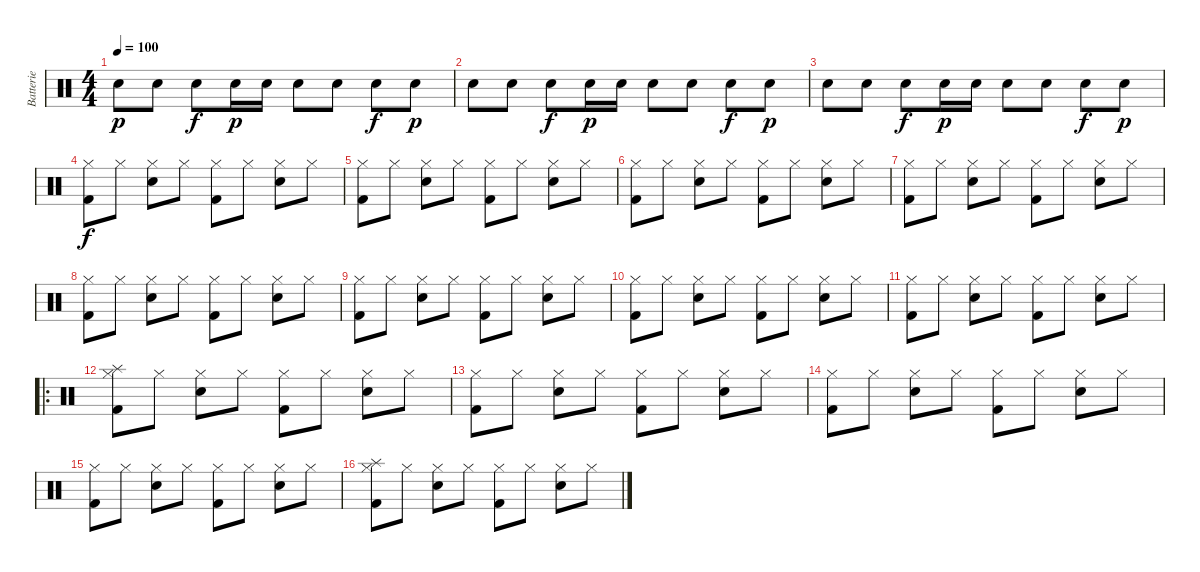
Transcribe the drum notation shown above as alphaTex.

\track ("Batterie" "Batterie") {instrument percussion}
\staff {score}
\articulation defaults
\ts (4 4)
\tempo 100
\clef neutral
\ks c "Snare (hit) 2".8{dy p} "Snare (hit) 2".8 "Snare (hit) 2".8{dy f} "Snare (hit) 2".16{dy p} "Snare (hit) 2".16 "Snare (hit) 2".8 "Snare (hit) 2".8 "Snare (hit) 2".8{dy f} "Snare (hit) 2".8{dy p}
|
"Snare (hit) 2".8 "Snare (hit) 2".8 "Snare (hit) 2".8{dy f} "Snare (hit) 2".16{dy p} "Snare (hit) 2".16 "Snare (hit) 2".8 "Snare (hit) 2".8 "Snare (hit) 2".8{dy f} "Snare (hit) 2".8{dy p} |
"Snare (hit) 2".8 "Snare (hit) 2".8 "Snare (hit) 2".8{dy f} "Snare (hit) 2".16{dy p} "Snare (hit) 2".16 "Snare (hit) 2".8 "Snare (hit) 2".8 "Snare (hit) 2".8{dy f} "Snare (hit) 2".8{dy p} |
("Hi-Hat (closed)" "Kick (hit) 2").8{dy f} "Hi-Hat (closed)".8 ("Hi-Hat (closed)" "Snare (hit) 2").8 "Hi-Hat (closed)".8 ("Hi-Hat (closed)" "Kick (hit) 2").8 "Hi-Hat (closed)".8 ("Hi-Hat (closed)" "Snare (hit) 2").8 "Hi-Hat (closed)".8 |
("Hi-Hat (closed)" "Kick (hit) 2").8 "Hi-Hat (closed)".8 ("Hi-Hat (closed)" "Snare (hit) 2").8 "Hi-Hat (closed)".8 ("Hi-Hat (closed)" "Kick (hit) 2").8 "Hi-Hat (closed)".8 ("Hi-Hat (closed)" "Snare (hit) 2").8 "Hi-Hat (closed)".8 |
("Hi-Hat (closed)" "Kick (hit) 2").8 "Hi-Hat (closed)".8 ("Hi-Hat (closed)" "Snare (hit) 2").8 "Hi-Hat (closed)".8 ("Hi-Hat (closed)" "Kick (hit) 2").8 "Hi-Hat (closed)".8 ("Hi-Hat (closed)" "Snare (hit) 2").8 "Hi-Hat (closed)".8 |
("Hi-Hat (closed)" "Kick (hit) 2").8 "Hi-Hat (closed)".8 ("Hi-Hat (closed)" "Snare (hit) 2").8 "Hi-Hat (closed)".8 ("Hi-Hat (closed)" "Kick (hit) 2").8 "Hi-Hat (closed)".8 ("Hi-Hat (closed)" "Snare (hit) 2").8 "Hi-Hat (closed)".8 |
("Hi-Hat (closed)" "Kick (hit) 2").8 "Hi-Hat (closed)".8 ("Hi-Hat (closed)" "Snare (hit) 2").8 "Hi-Hat (closed)".8 ("Hi-Hat (closed)" "Kick (hit) 2").8 "Hi-Hat (closed)".8 ("Hi-Hat (closed)" "Snare (hit) 2").8 "Hi-Hat (closed)".8 |
("Hi-Hat (closed)" "Kick (hit) 2").8 "Hi-Hat (closed)".8 ("Hi-Hat (closed)" "Snare (hit) 2").8 "Hi-Hat (closed)".8 ("Hi-Hat (closed)" "Kick (hit) 2").8 "Hi-Hat (closed)".8 ("Hi-Hat (closed)" "Snare (hit) 2").8 "Hi-Hat (closed)".8 |
("Hi-Hat (closed)" "Kick (hit) 2").8 "Hi-Hat (closed)".8 ("Hi-Hat (closed)" "Snare (hit) 2").8 "Hi-Hat (closed)".8 ("Hi-Hat (closed)" "Kick (hit) 2").8 "Hi-Hat (closed)".8 ("Hi-Hat (closed)" "Snare (hit) 2").8 "Hi-Hat (closed)".8 |
("Hi-Hat (closed)" "Kick (hit) 2").8 "Hi-Hat (closed)".8 ("Hi-Hat (closed)" "Snare (hit) 2").8 "Hi-Hat (closed)".8 ("Hi-Hat (closed)" "Kick (hit) 2").8 "Hi-Hat (closed)".8 ("Hi-Hat (closed)" "Snare (hit) 2").8 "Hi-Hat (closed)".8 |
\ro
("Splash (hit)" "Hi-Hat (closed)" "Kick (hit) 2").8 "Hi-Hat (closed)".8 ("Hi-Hat (closed)" "Snare (hit) 2").8 "Hi-Hat (closed)".8 ("Hi-Hat (closed)" "Kick (hit) 2").8 "Hi-Hat (closed)".8 ("Hi-Hat (closed)" "Snare (hit) 2").8 "Hi-Hat (closed)".8 |
("Hi-Hat (closed)" "Kick (hit) 2").8 "Hi-Hat (closed)".8 ("Hi-Hat (closed)" "Snare (hit) 2").8 "Hi-Hat (closed)".8 ("Hi-Hat (closed)" "Kick (hit) 2").8 "Hi-Hat (closed)".8 ("Hi-Hat (closed)" "Snare (hit) 2").8 "Hi-Hat (closed)".8 |
("Hi-Hat (closed)" "Kick (hit) 2").8 "Hi-Hat (closed)".8 ("Hi-Hat (closed)" "Snare (hit) 2").8 "Hi-Hat (closed)".8 ("Hi-Hat (closed)" "Kick (hit) 2").8 "Hi-Hat (closed)".8 ("Hi-Hat (closed)" "Snare (hit) 2").8 "Hi-Hat (closed)".8 |
("Hi-Hat (closed)" "Kick (hit) 2").8 "Hi-Hat (closed)".8 ("Hi-Hat (closed)" "Snare (hit) 2").8 "Hi-Hat (closed)".8 ("Hi-Hat (closed)" "Kick (hit) 2").8 "Hi-Hat (closed)".8 ("Hi-Hat (closed)" "Snare (hit) 2").8 "Hi-Hat (closed)".8 |
("Splash (hit)" "Hi-Hat (closed)" "Kick (hit) 2").8 "Hi-Hat (closed)".8 ("Hi-Hat (closed)" "Snare (hit) 2").8 "Hi-Hat (closed)".8 ("Hi-Hat (closed)" "Kick (hit) 2").8 "Hi-Hat (closed)".8 ("Hi-Hat (closed)" "Snare (hit) 2").8 "Hi-Hat (closed)".8
